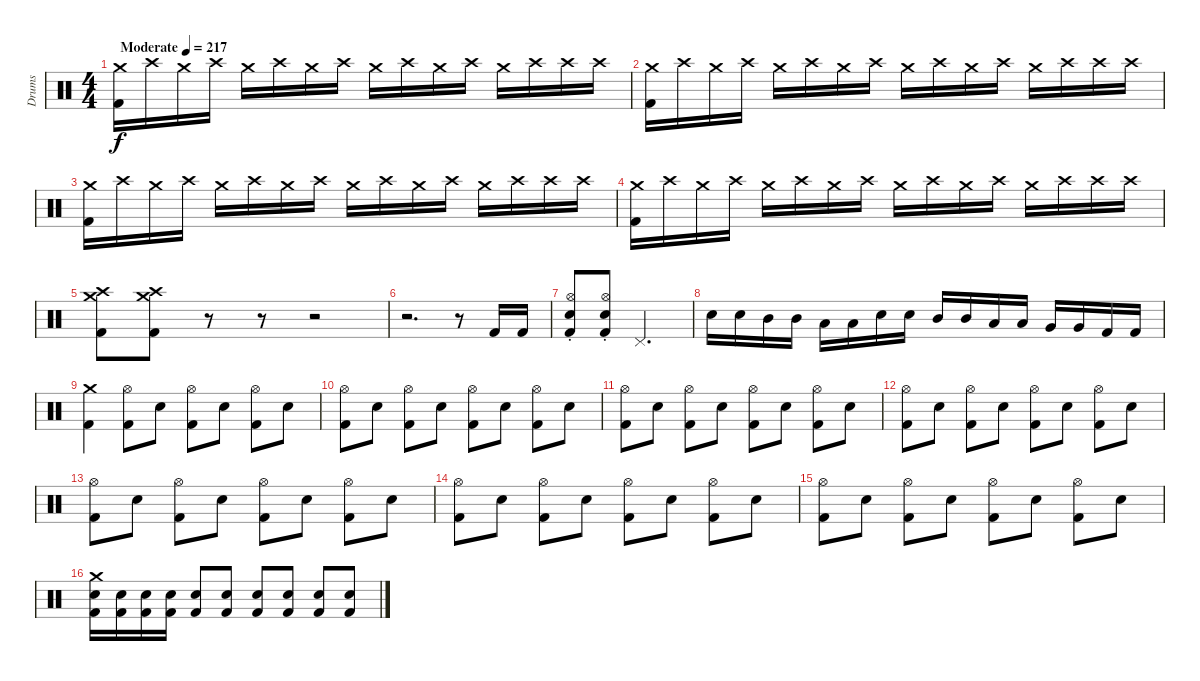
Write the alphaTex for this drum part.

\track ("Drums" "Drums") {instrument percussion}
\staff {score}
\articulation defaults
\ts (4 4)
\tempo (217 "Moderate")
\clef neutral
\ks c
("Crash medium (hit)" "Kick (hit) 2").16{dy f} "Crash high (hit)".16 "Crash medium (hit)".16 "Crash high (hit)".16 "Crash medium (hit)".16 "Crash high (hit)".16 "Crash medium (hit)".16 "Crash high (hit)".16 "Crash medium (hit)".16 "Crash high (hit)".16 "Crash medium (hit)".16 "Crash high (hit)".16 "Crash medium (hit)".16 "Crash high (hit)".16 "Crash high (hit)".16 "Crash high (hit)".16 |
("Crash medium (hit)" "Kick (hit) 2").16 "Crash high (hit)".16 "Crash medium (hit)".16 "Crash high (hit)".16 "Crash medium (hit)".16 "Crash high (hit)".16 "Crash medium (hit)".16 "Crash high (hit)".16 "Crash medium (hit)".16 "Crash high (hit)".16 "Crash medium (hit)".16 "Crash high (hit)".16 "Crash medium (hit)".16 "Crash high (hit)".16 "Crash high (hit)".16 "Crash high (hit)".16 |
("Crash medium (hit)" "Kick (hit) 2").16 "Crash high (hit)".16 "Crash medium (hit)".16 "Crash high (hit)".16 "Crash medium (hit)".16 "Crash high (hit)".16 "Crash medium (hit)".16 "Crash high (hit)".16 "Crash medium (hit)".16 "Crash high (hit)".16 "Crash medium (hit)".16 "Crash high (hit)".16 "Crash medium (hit)".16 "Crash high (hit)".16 "Crash high (hit)".16 "Crash high (hit)".16 |
("Crash medium (hit)" "Kick (hit) 2").16 "Crash high (hit)".16 "Crash medium (hit)".16 "Crash high (hit)".16 "Crash medium (hit)".16 "Crash high (hit)".16 "Crash medium (hit)".16 "Crash high (hit)".16 "Crash medium (hit)".16 "Crash high (hit)".16 "Crash medium (hit)".16 "Crash high (hit)".16 "Crash medium (hit)".16 "Crash high (hit)".16 "Crash high (hit)".16 "Crash high (hit)".16 |
("Crash high (hit)" "Crash medium (hit)" "Kick (hit) 2").8 ("Crash high (hit)" "Crash medium (hit)" "Kick (hit) 2").8 r.8 r.8 r.2 |
r.2{d} r.8 "Kick (hit) 2".16 "Kick (hit) 2".16 |
("Hi-Hat (open)"{st} "Electric Snare (hit)" "Kick (hit) 2").8 ("Hi-Hat (open)"{st} "Electric Snare (hit)" "Kick (hit) 2").8 "Pedal Hi-Hat (hit)".2{d} |
"Electric Snare (hit)".16 "Electric Snare (hit)".16 "Mid Tom (hit)".16 "Mid Tom (hit)".16 "Low Tom (hit)".16 "Low Tom (hit)".16 "Electric Snare (hit)".16 "Electric Snare (hit)".16 "Mid Tom (hit)".16 "Mid Tom (hit)".16 "Low Tom (hit)".16 "Low Tom (hit)".16 "Very Low Tom (hit)".16 "Very Low Tom (hit)".16 "Kick (hit) 2".16 "Kick (hit) 2".16 |
("Crash medium (hit)" "Kick (hit) 2").4 ("Hi-Hat (open)" "Kick (hit) 2").8 "Electric Snare (hit)".8 ("Hi-Hat (open)" "Kick (hit) 2").8 "Electric Snare (hit)".8 ("Hi-Hat (open)" "Kick (hit) 2").8 "Electric Snare (hit)".8 |
("Hi-Hat (open)" "Kick (hit) 2").8 "Electric Snare (hit)".8 ("Hi-Hat (open)" "Kick (hit) 2").8 "Electric Snare (hit)".8 ("Hi-Hat (open)" "Kick (hit) 2").8 "Electric Snare (hit)".8 ("Hi-Hat (open)" "Kick (hit) 2").8 "Electric Snare (hit)".8 |
("Hi-Hat (open)" "Kick (hit) 2").8 "Electric Snare (hit)".8 ("Hi-Hat (open)" "Kick (hit) 2").8 "Electric Snare (hit)".8 ("Hi-Hat (open)" "Kick (hit) 2").8 "Electric Snare (hit)".8 ("Hi-Hat (open)" "Kick (hit) 2").8 "Electric Snare (hit)".8 |
("Hi-Hat (open)" "Kick (hit) 2").8 "Electric Snare (hit)".8 ("Hi-Hat (open)" "Kick (hit) 2").8 "Electric Snare (hit)".8 ("Hi-Hat (open)" "Kick (hit) 2").8 "Electric Snare (hit)".8 ("Hi-Hat (open)" "Kick (hit) 2").8 "Electric Snare (hit)".8 |
("Hi-Hat (open)" "Kick (hit) 2").8 "Electric Snare (hit)".8 ("Hi-Hat (open)" "Kick (hit) 2").8 "Electric Snare (hit)".8 ("Hi-Hat (open)" "Kick (hit) 2").8 "Electric Snare (hit)".8 ("Hi-Hat (open)" "Kick (hit) 2").8 "Electric Snare (hit)".8 |
("Hi-Hat (open)" "Kick (hit) 2").8 "Electric Snare (hit)".8 ("Hi-Hat (open)" "Kick (hit) 2").8 "Electric Snare (hit)".8 ("Hi-Hat (open)" "Kick (hit) 2").8 "Electric Snare (hit)".8 ("Hi-Hat (open)" "Kick (hit) 2").8 "Electric Snare (hit)".8 |
("Hi-Hat (open)" "Kick (hit) 2").8 "Electric Snare (hit)".8 ("Hi-Hat (open)" "Kick (hit) 2").8 "Electric Snare (hit)".8 ("Hi-Hat (open)" "Kick (hit) 2").8 "Electric Snare (hit)".8 ("Hi-Hat (open)" "Kick (hit) 2").8 "Electric Snare (hit)".8 |
("Crash medium (hit)" "Electric Snare (hit)" "Kick (hit) 2").16 ("Electric Snare (hit)" "Kick (hit) 2").16 ("Electric Snare (hit)" "Kick (hit) 2").16 ("Electric Snare (hit)" "Kick (hit) 2").16 ("Electric Snare (hit)" "Kick (hit) 2").8 ("Electric Snare (hit)" "Kick (hit) 2").8 ("Electric Snare (hit)" "Kick (hit) 2").8 ("Electric Snare (hit)" "Kick (hit) 2").8 ("Electric Snare (hit)" "Kick (hit) 2").8 ("Electric Snare (hit)" "Kick (hit) 2").8
